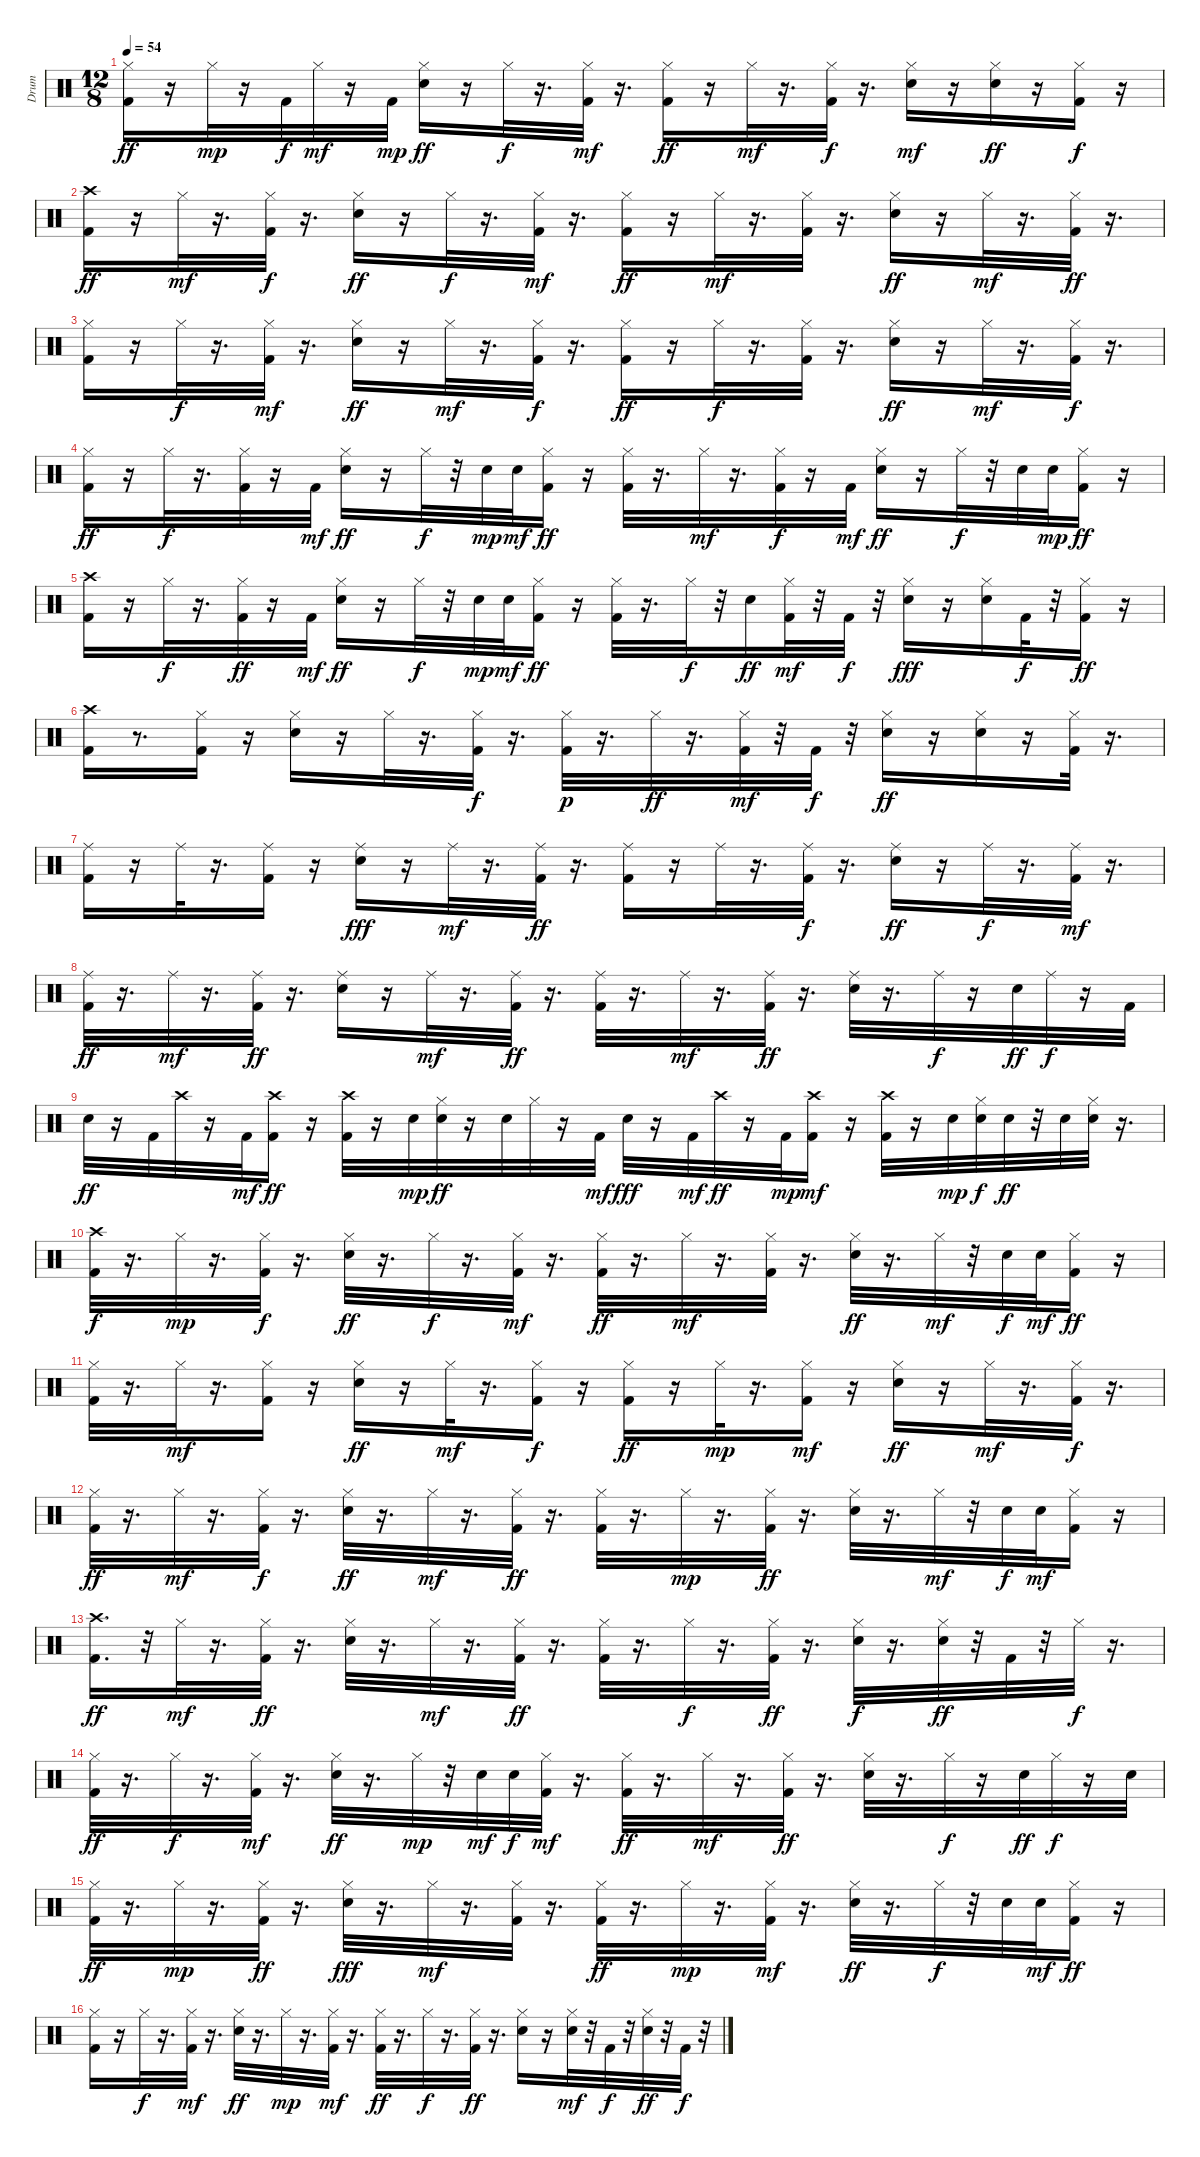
\track ("Drum" "Drum") {instrument percussion}
\staff {score}
\articulation defaults
\ts (12 8)
\tempo 54
\clef neutral
\ks c
("Kick (hit) 2" "Hi-Hat (closed)").16{dy ff} r.16 "Hi-Hat (closed)".32{dy mp} r.16 "Kick (hit) 2".32{dy f} "Hi-Hat (closed)".32{dy mf} r.16 "Kick (hit) 2".32{dy mp} ("Hi-Hat (closed)" "Electric Snare (hit)").16{dy ff} r.16 "Hi-Hat (closed)".32{dy f} r.16{d} ("Hi-Hat (closed)" "Kick (hit) 2").32{dy mf} r.16{d} ("Hi-Hat (closed)" "Kick (hit) 2").16{dy ff} r.16 "Hi-Hat (closed)".32{dy mf} r.16{d} ("Hi-Hat (closed)" "Kick (hit) 2").32{dy f} r.16{d} ("Hi-Hat (closed)" "Electric Snare (hit)").16{dy mf} r.16 ("Hi-Hat (closed)" "Electric Snare (hit)").16{dy ff} r.16 ("Hi-Hat (closed)" "Kick (hit) 2").16{dy f} r.16 |
("Crash high (hit)" "Kick (hit) 2").16{dy ff} r.16 "Hi-Hat (closed)".32{dy mf} r.16{d} ("Hi-Hat (closed)" "Kick (hit) 2").32{dy f} r.16{d} ("Hi-Hat (closed)" "Electric Snare (hit)").16{dy ff} r.16 "Hi-Hat (closed)".32{dy f} r.16{d} ("Kick (hit) 2" "Hi-Hat (closed)").32{dy mf} r.16{d} ("Kick (hit) 2" "Hi-Hat (closed)").16{dy ff} r.16 "Hi-Hat (closed)".32{dy mf} r.16{d} ("Hi-Hat (closed)" "Kick (hit) 2").32 r.16{d} ("Electric Snare (hit)" "Hi-Hat (closed)").16{dy ff} r.16 "Hi-Hat (closed)".32{dy mf} r.16{d} ("Hi-Hat (closed)" "Kick (hit) 2").32{dy ff} r.16{d} |
("Hi-Hat (closed)" "Kick (hit) 2").16 r.16 "Hi-Hat (closed)".32{dy f} r.16{d} ("Hi-Hat (closed)" "Kick (hit) 2").32{dy mf} r.16{d} ("Electric Snare (hit)" "Hi-Hat (closed)").16{dy ff} r.16 "Hi-Hat (closed)".32{dy mf} r.16{d} ("Hi-Hat (closed)" "Kick (hit) 2").32{dy f} r.16{d} ("Hi-Hat (closed)" "Kick (hit) 2").16{dy ff} r.16 "Hi-Hat (closed)".32{dy f} r.16{d} ("Hi-Hat (closed)" "Kick (hit) 2").32 r.16{d} ("Electric Snare (hit)" "Hi-Hat (closed)").16{dy ff} r.16 "Hi-Hat (closed)".32{dy mf} r.16{d} ("Kick (hit) 2" "Hi-Hat (closed)").32{dy f} r.16{d} |
("Hi-Hat (closed)" "Kick (hit) 2").16{dy ff} r.16 "Hi-Hat (closed)".32{dy f} r.16{d} ("Kick (hit) 2" "Hi-Hat (closed)").32 r.16 "Kick (hit) 2".32{dy mf} ("Electric Snare (hit)" "Hi-Hat (closed)").16{dy ff} r.16 "Hi-Hat (closed)".32{dy f} r.32 "Electric Snare (hit)".32{dy mp} "Electric Snare (hit)".32{dy mf} ("Kick (hit) 2" "Hi-Hat (closed)").16{dy ff} r.16 ("Kick (hit) 2" "Hi-Hat (closed)").32 r.16{d} "Hi-Hat (closed)".32{dy mf} r.16{d} ("Hi-Hat (closed)" "Kick (hit) 2").32{dy f} r.16 "Kick (hit) 2".32{dy mf} ("Hi-Hat (closed)" "Electric Snare (hit)").16{dy ff} r.16 "Hi-Hat (closed)".32{dy f} r.32 "Electric Snare (hit)".32 "Electric Snare (hit)".32{dy mp} ("Kick (hit) 2" "Hi-Hat (closed)").16{dy ff} r.16 |
("Crash high (hit)" "Kick (hit) 2").16 r.16 "Hi-Hat (closed)".32{dy f} r.16{d} ("Kick (hit) 2" "Hi-Hat (closed)").32{dy ff} r.16 "Kick (hit) 2".32{dy mf} ("Electric Snare (hit)" "Hi-Hat (closed)").16{dy ff} r.16 "Hi-Hat (closed)".32{dy f} r.32 "Electric Snare (hit)".32{dy mp} "Electric Snare (hit)".32{dy mf} ("Kick (hit) 2" "Hi-Hat (closed)").16{dy ff} r.16 ("Kick (hit) 2" "Hi-Hat (closed)").32 r.16{d} "Hi-Hat (closed)".32{dy f} r.32 "Electric Snare (hit)".16{dy ff} ("Hi-Hat (closed)" "Kick (hit) 2").32{dy mf} r.32 "Kick (hit) 2".32{dy f} r.32 ("Electric Snare (hit)" "Hi-Hat (closed)").16{dy fff} r.16 ("Electric Snare (hit)" "Hi-Hat (closed)").16 "Kick (hit) 2".32{dy f} r.32 ("Hi-Hat (closed)" "Kick (hit) 2").16{dy ff} r.16 |
("Kick (hit) 2" "Crash high (hit)").16 r.8{d} ("Hi-Hat (closed)" "Kick (hit) 2").16 r.16 ("Hi-Hat (closed)" "Electric Snare (hit)").16 r.16 "Hi-Hat (closed)".32 r.16{d} ("Hi-Hat (closed)" "Kick (hit) 2").32{dy f} r.16{d} ("Kick (hit) 2" "Hi-Hat (closed)").32{dy p} r.16{d} "Hi-Hat (closed)".32{dy ff} r.16{d} ("Hi-Hat (closed)" "Kick (hit) 2").32{dy mf} r.32 "Kick (hit) 2".32{dy f} r.32 ("Hi-Hat (closed)" "Electric Snare (hit)").16{dy ff} r.16 ("Hi-Hat (closed)" "Electric Snare (hit)").16 r.16 ("Hi-Hat (closed)" "Kick (hit) 2").32 r.16{d} |
("Ride (middle)" "Kick (hit) 2").16 r.16 "Ride (middle)".32 r.16{d} ("Kick (hit) 2" "Ride (middle)").16 r.16 ("Electric Snare (hit)" "Ride (middle)").16{dy fff} r.16 "Ride (middle)".32{dy mf} r.16{d} ("Kick (hit) 2" "Ride (middle)").32{dy ff} r.16{d} ("Kick (hit) 2" "Ride (middle)").16 r.16 "Ride (middle)".32 r.16{d} ("Ride (middle)" "Kick (hit) 2").32{dy f} r.16{d} ("Ride (middle)" "Electric Snare (hit)").16{dy ff} r.16 "Ride (middle)".32{dy f} r.16{d} ("Ride (middle)" "Kick (hit) 2").32{dy mf} r.16{d} |
("Ride (middle)" "Kick (hit) 2").32{dy ff} r.16{d} "Ride (middle)".32{dy mf} r.16{d} ("Ride (middle)" "Kick (hit) 2").32{dy ff} r.16{d} ("Electric Snare (hit)" "Ride (middle)").16 r.16 "Ride (middle)".32{dy mf} r.16{d} ("Ride (middle)" "Kick (hit) 2").32{dy ff} r.16{d} ("Kick (hit) 2" "Ride (middle)").32 r.16{d} "Ride (middle)".32{dy mf} r.16{d} ("Kick (hit) 2" "Ride (middle)").32{dy ff} r.16{d} ("Ride (middle)" "Electric Snare (hit)").32 r.16{d} "Ride (middle)".32{dy f} r.16 "Electric Snare (hit)".32{dy ff} "Ride (middle)".32{dy f} r.16 "Kick (hit) 2".32 |
"Electric Snare (hit)".32{dy ff} r.16 "Kick (hit) 2".32 "Crash high (hit)".32 r.16 "Kick (hit) 2".32{dy mf} ("Kick (hit) 2" "Crash high (hit)").16{dy ff} r.16 ("Kick (hit) 2" "Crash high (hit)").32 r.16 "Electric Snare (hit)".32{dy mp} ("Electric Snare (hit)" "Hi-Hat (closed)").32{dy ff} r.16 "Electric Snare (hit)".32 "Hi-Hat (closed)".32 r.16 "Kick (hit) 2".32{dy mf} "Electric Snare (hit)".32{dy fff} r.16 "Kick (hit) 2".32{dy mf} "Crash high (hit)".32{dy ff} r.16 "Kick (hit) 2".32{dy mp} ("Kick (hit) 2" "Crash high (hit)").16{dy mf} r.16 ("Kick (hit) 2" "Crash high (hit)").32 r.16 "Electric Snare (hit)".32{dy mp} ("Electric Snare (hit)" "Hi-Hat (closed)").32{dy f} "Electric Snare (hit)".32{dy ff} r.32 "Electric Snare (hit)".32 ("Electric Snare (hit)" "Hi-Hat (closed)").32 r.16{d} |
("Crash high (hit)" "Kick (hit) 2").32{dy f} r.16{d} "Hi-Hat (closed)".32{dy mp} r.16{d} ("Kick (hit) 2" "Hi-Hat (closed)").32{dy f} r.16{d} ("Electric Snare (hit)" "Hi-Hat (closed)").32{dy ff} r.16{d} "Hi-Hat (closed)".32{dy f} r.16{d} ("Kick (hit) 2" "Hi-Hat (closed)").32{dy mf} r.16{d} ("Kick (hit) 2" "Hi-Hat (closed)").32{dy ff} r.16{d} "Hi-Hat (closed)".32{dy mf} r.16{d} ("Kick (hit) 2" "Hi-Hat (closed)").32 r.16{d} ("Electric Snare (hit)" "Hi-Hat (closed)").32{dy ff} r.16{d} "Hi-Hat (closed)".32{dy mf} r.32 "Electric Snare (hit)".32{dy f} "Electric Snare (hit)".32{dy mf} ("Kick (hit) 2" "Hi-Hat (closed)").16{dy ff} r.16 |
("Kick (hit) 2" "Hi-Hat (closed)").32 r.16{d} "Hi-Hat (closed)".32{dy mf} r.16{d} ("Kick (hit) 2" "Hi-Hat (closed)").16 r.16 ("Electric Snare (hit)" "Hi-Hat (closed)").16{dy ff} r.16 "Hi-Hat (closed)".32{dy mf} r.16{d} ("Kick (hit) 2" "Hi-Hat (closed)").16{dy f} r.16 ("Kick (hit) 2" "Hi-Hat (closed)").16{dy ff} r.16 "Hi-Hat (closed)".32{dy mp} r.16{d} ("Kick (hit) 2" "Hi-Hat (closed)").16{dy mf} r.16 ("Electric Snare (hit)" "Hi-Hat (closed)").16{dy ff} r.16 "Hi-Hat (closed)".32{dy mf} r.16{d} ("Kick (hit) 2" "Hi-Hat (closed)").32{dy f} r.16{d} |
("Kick (hit) 2" "Hi-Hat (closed)").32{dy ff} r.16{d} "Hi-Hat (closed)".32{dy mf} r.16{d} ("Kick (hit) 2" "Hi-Hat (closed)").32{dy f} r.16{d} ("Electric Snare (hit)" "Hi-Hat (closed)").32{dy ff} r.16{d} "Hi-Hat (closed)".32{dy mf} r.16{d} ("Kick (hit) 2" "Hi-Hat (closed)").32{dy ff} r.16{d} ("Kick (hit) 2" "Hi-Hat (closed)").32 r.16{d} "Hi-Hat (closed)".32{dy mp} r.16{d} ("Kick (hit) 2" "Hi-Hat (closed)").32{dy ff} r.16{d} ("Electric Snare (hit)" "Hi-Hat (closed)").32 r.16{d} "Hi-Hat (closed)".32{dy mf} r.32 "Electric Snare (hit)".32{dy f} "Electric Snare (hit)".32{dy mf} ("Kick (hit) 2" "Hi-Hat (closed)").16 r.16 |
("Kick (hit) 2" "Crash high (hit)").16{d dy ff} r.32 "Hi-Hat (closed)".32{dy mf} r.16{d} ("Kick (hit) 2" "Hi-Hat (closed)").32{dy ff} r.16{d} ("Hi-Hat (closed)" "Electric Snare (hit)").32 r.16{d} "Hi-Hat (closed)".32{dy mf} r.16{d} ("Hi-Hat (closed)" "Kick (hit) 2").32{dy ff} r.16{d} ("Kick (hit) 2" "Hi-Hat (closed)").32 r.16{d} "Hi-Hat (closed)".32{dy f} r.16{d} ("Hi-Hat (closed)" "Kick (hit) 2").32{dy ff} r.16{d} ("Hi-Hat (closed)" "Electric Snare (hit)").32{dy f} r.16{d} ("Electric Snare (hit)" "Hi-Hat (closed)").32{dy ff} r.32 "Kick (hit) 2".32 r.32 "Hi-Hat (closed)".32{dy f} r.16{d} |
("Hi-Hat (closed)" "Kick (hit) 2").32{dy ff} r.16{d} "Hi-Hat (closed)".32{dy f} r.16{d} ("Kick (hit) 2" "Hi-Hat (closed)").32{dy mf} r.16{d} ("Electric Snare (hit)" "Hi-Hat (closed)").32{dy ff} r.16{d} "Hi-Hat (closed)".32{dy mp} r.32 "Electric Snare (hit)".32{dy mf} "Electric Snare (hit)".32{dy f} ("Kick (hit) 2" "Hi-Hat (closed)").32{dy mf} r.16{d} ("Kick (hit) 2" "Hi-Hat (closed)").32{dy ff} r.16{d} "Hi-Hat (closed)".32{dy mf} r.16{d} ("Kick (hit) 2" "Hi-Hat (closed)").32{dy ff} r.16{d} ("Electric Snare (hit)" "Hi-Hat (closed)").32 r.16{d} "Hi-Hat (closed)".32{dy f} r.16 "Electric Snare (hit)".32{dy ff} "Hi-Hat (closed)".32{dy f} r.16 "Electric Snare (hit)".32 |
("Kick (hit) 2" "Hi-Hat (closed)").32{dy ff} r.16{d} "Hi-Hat (closed)".32{dy mp} r.16{d} ("Kick (hit) 2" "Hi-Hat (closed)").32{dy ff} r.16{d} ("Electric Snare (hit)" "Hi-Hat (closed)").32{dy fff} r.16{d} "Hi-Hat (closed)".32{dy mf} r.16{d} ("Kick (hit) 2" "Hi-Hat (closed)").32 r.16{d} ("Kick (hit) 2" "Hi-Hat (closed)").32{dy ff} r.16{d} "Hi-Hat (closed)".32{dy mp} r.16{d} ("Kick (hit) 2" "Hi-Hat (closed)").32{dy mf} r.16{d} ("Electric Snare (hit)" "Hi-Hat (closed)").32{dy ff} r.16{d} "Hi-Hat (closed)".32{dy f} r.32 "Electric Snare (hit)".32 "Electric Snare (hit)".32{dy mf} ("Kick (hit) 2" "Hi-Hat (closed)").16{dy ff} r.16 |
("Kick (hit) 2" "Hi-Hat (closed)").16 r.16 "Hi-Hat (closed)".32{dy f} r.16{d} ("Kick (hit) 2" "Hi-Hat (closed)").32{dy mf} r.16{d} ("Electric Snare (hit)" "Hi-Hat (closed)").32{dy ff} r.16{d} "Hi-Hat (closed)".32{dy mp} r.16{d} ("Kick (hit) 2" "Hi-Hat (closed)").32{dy mf} r.16{d} ("Kick (hit) 2" "Hi-Hat (closed)").32{dy ff} r.16{d} "Hi-Hat (closed)".32{dy f} r.16{d} ("Kick (hit) 2" "Hi-Hat (closed)").32{dy ff} r.16{d} ("Electric Snare (hit)" "Hi-Hat (closed)").16 r.16 ("Electric Snare (hit)" "Hi-Hat (closed)").32{dy mf} r.32 "Kick (hit) 2".32{dy f} r.32 ("Electric Snare (hit)" "Hi-Hat (closed)").32{dy ff} r.32 "Kick (hit) 2".32{dy f} r.32
